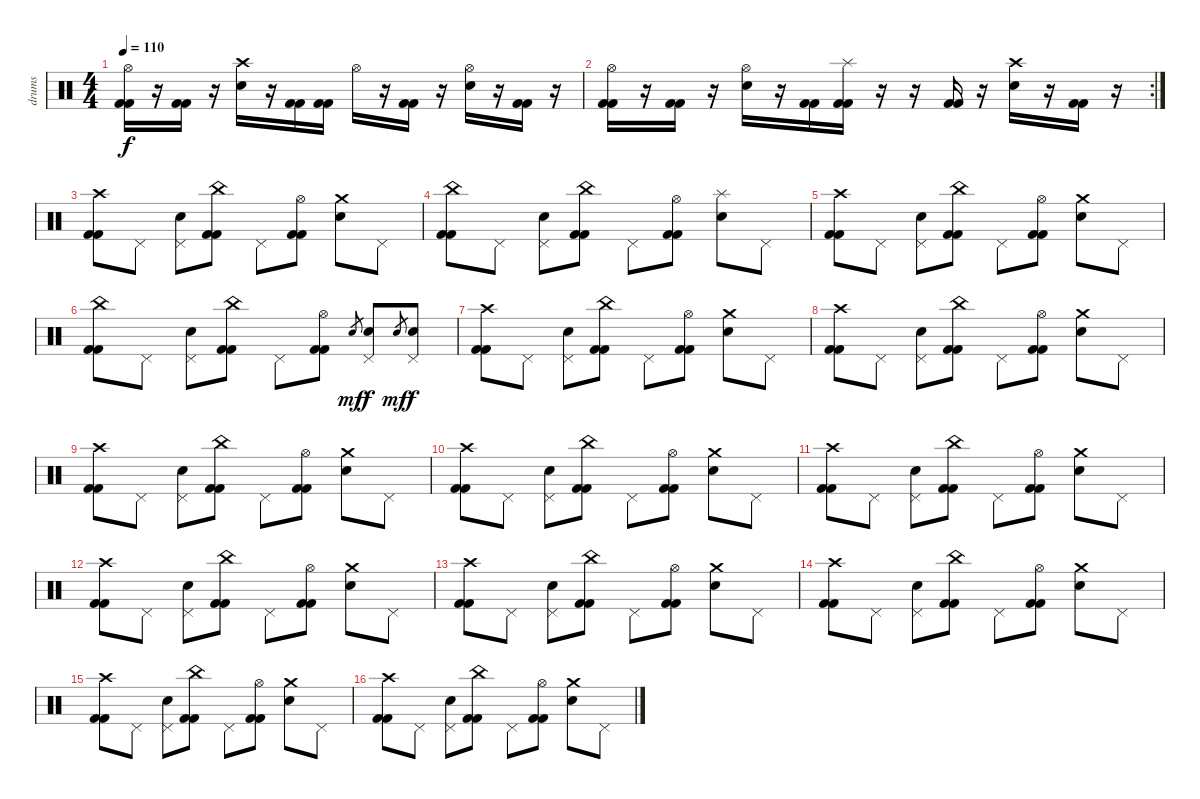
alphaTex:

\track ("drums" "drums") {instrument percussion}
\staff {score}
\articulation defaults
\ts (4 4)
\tempo 110
\clef neutral
\ks c
("Hi-Hat (open)" "Kick (hit) 2" "Kick (hit) 2").16{dy f} r.16 ("Kick (hit) 2" "Kick (hit) 2").16 r.16 ("Crash high (hit)" "Electric Snare (hit)").16 r.16 ("Kick (hit) 2" "Kick (hit) 2").16 ("Kick (hit) 2" "Kick (hit) 2").16 "Hi-Hat (open)".16 r.16 ("Kick (hit) 2" "Kick (hit) 2").16 r.16 ("Hi-Hat (open)" "Electric Snare (hit)").16 r.16 ("Kick (hit) 2" "Kick (hit) 2").16 r.16 |
\rc 2
("Hi-Hat (open)" "Kick (hit) 2" "Kick (hit) 2").16 r.16 ("Kick (hit) 2" "Kick (hit) 2").16 r.16 ("Hi-Hat (open)" "Electric Snare (hit)").16 r.16 ("Kick (hit) 2" "Kick (hit) 2").16 ("Splash (hit)" "Kick (hit) 2" "Kick (hit) 2").16 r.16 r.16 ("Kick (hit) 2" "Kick (hit) 2").16 r.16 ("Crash high (hit)" "Electric Snare (hit)").16 r.16 ("Kick (hit) 2" "Kick (hit) 2").16 r.16 |
("Crash high (hit)" "Kick (hit) 2" "Kick (hit) 2").8 "Pedal Hi-Hat (hit)".8 ("Pedal Hi-Hat (hit)" "Electric Snare (hit)").8 ("China (hit)" "Kick (hit) 2" "Kick (hit) 2").8 "Pedal Hi-Hat (hit)".8 ("Hi-Hat (open)" "Kick (hit) 2" "Kick (hit) 2").8 ("Crash medium (hit)" "Electric Snare (hit)").8 "Pedal Hi-Hat (hit)".8 |
("China (hit)" "Kick (hit) 2" "Kick (hit) 2").8 "Pedal Hi-Hat (hit)".8 ("Pedal Hi-Hat (hit)" "Electric Snare (hit)").8 ("China (hit)" "Kick (hit) 2" "Kick (hit) 2").8 "Pedal Hi-Hat (hit)".8 ("Hi-Hat (open)" "Kick (hit) 2" "Kick (hit) 2").8 ("Splash (hit)" "Electric Snare (hit)").8 "Pedal Hi-Hat (hit)".8 |
("Crash high (hit)" "Kick (hit) 2" "Kick (hit) 2").8 "Pedal Hi-Hat (hit)".8 ("Pedal Hi-Hat (hit)" "Electric Snare (hit)").8 ("China (hit)" "Kick (hit) 2" "Kick (hit) 2").8 "Pedal Hi-Hat (hit)".8 ("Hi-Hat (open)" "Kick (hit) 2" "Kick (hit) 2").8 ("Crash medium (hit)" "Electric Snare (hit)").8 "Pedal Hi-Hat (hit)".8 |
("China (hit)" "Kick (hit) 2" "Kick (hit) 2").8 "Pedal Hi-Hat (hit)".8 ("Pedal Hi-Hat (hit)" "Electric Snare (hit)").8 ("China (hit)" "Kick (hit) 2" "Kick (hit) 2").8 "Pedal Hi-Hat (hit)".8 ("Hi-Hat (open)" "Kick (hit) 2" "Kick (hit) 2").8 "Electric Snare (hit)".8{gr dy mf} ("Pedal Hi-Hat (hit)" "Electric Snare (hit)").8{dy f} "Electric Snare (hit)".8{gr dy mf} ("Pedal Hi-Hat (hit)" "Electric Snare (hit)").8{dy f} |
("Crash high (hit)" "Kick (hit) 2" "Kick (hit) 2").8 "Pedal Hi-Hat (hit)".8 ("Pedal Hi-Hat (hit)" "Electric Snare (hit)").8 ("China (hit)" "Kick (hit) 2" "Kick (hit) 2").8 "Pedal Hi-Hat (hit)".8 ("Hi-Hat (open)" "Kick (hit) 2" "Kick (hit) 2").8 ("Crash medium (hit)" "Electric Snare (hit)").8 "Pedal Hi-Hat (hit)".8 |
("Crash high (hit)" "Kick (hit) 2" "Kick (hit) 2").8 "Pedal Hi-Hat (hit)".8 ("Pedal Hi-Hat (hit)" "Electric Snare (hit)").8 ("China (hit)" "Kick (hit) 2" "Kick (hit) 2").8 "Pedal Hi-Hat (hit)".8 ("Hi-Hat (open)" "Kick (hit) 2" "Kick (hit) 2").8 ("Crash medium (hit)" "Electric Snare (hit)").8 "Pedal Hi-Hat (hit)".8 |
("Crash high (hit)" "Kick (hit) 2" "Kick (hit) 2").8 "Pedal Hi-Hat (hit)".8 ("Pedal Hi-Hat (hit)" "Electric Snare (hit)").8 ("China (hit)" "Kick (hit) 2" "Kick (hit) 2").8 "Pedal Hi-Hat (hit)".8 ("Hi-Hat (open)" "Kick (hit) 2" "Kick (hit) 2").8 ("Crash medium (hit)" "Electric Snare (hit)").8 "Pedal Hi-Hat (hit)".8 |
("Crash high (hit)" "Kick (hit) 2" "Kick (hit) 2").8 "Pedal Hi-Hat (hit)".8 ("Pedal Hi-Hat (hit)" "Electric Snare (hit)").8 ("China (hit)" "Kick (hit) 2" "Kick (hit) 2").8 "Pedal Hi-Hat (hit)".8 ("Hi-Hat (open)" "Kick (hit) 2" "Kick (hit) 2").8 ("Crash medium (hit)" "Electric Snare (hit)").8 "Pedal Hi-Hat (hit)".8 |
("Crash high (hit)" "Kick (hit) 2" "Kick (hit) 2").8 "Pedal Hi-Hat (hit)".8 ("Pedal Hi-Hat (hit)" "Electric Snare (hit)").8 ("China (hit)" "Kick (hit) 2" "Kick (hit) 2").8 "Pedal Hi-Hat (hit)".8 ("Hi-Hat (open)" "Kick (hit) 2" "Kick (hit) 2").8 ("Crash medium (hit)" "Electric Snare (hit)").8 "Pedal Hi-Hat (hit)".8 |
("Crash high (hit)" "Kick (hit) 2" "Kick (hit) 2").8 "Pedal Hi-Hat (hit)".8 ("Pedal Hi-Hat (hit)" "Electric Snare (hit)").8 ("China (hit)" "Kick (hit) 2" "Kick (hit) 2").8 "Pedal Hi-Hat (hit)".8 ("Hi-Hat (open)" "Kick (hit) 2" "Kick (hit) 2").8 ("Crash medium (hit)" "Electric Snare (hit)").8 "Pedal Hi-Hat (hit)".8 |
("Crash high (hit)" "Kick (hit) 2" "Kick (hit) 2").8 "Pedal Hi-Hat (hit)".8 ("Pedal Hi-Hat (hit)" "Electric Snare (hit)").8 ("China (hit)" "Kick (hit) 2" "Kick (hit) 2").8 "Pedal Hi-Hat (hit)".8 ("Hi-Hat (open)" "Kick (hit) 2" "Kick (hit) 2").8 ("Crash medium (hit)" "Electric Snare (hit)").8 "Pedal Hi-Hat (hit)".8 |
("Crash high (hit)" "Kick (hit) 2" "Kick (hit) 2").8 "Pedal Hi-Hat (hit)".8 ("Pedal Hi-Hat (hit)" "Electric Snare (hit)").8 ("China (hit)" "Kick (hit) 2" "Kick (hit) 2").8 "Pedal Hi-Hat (hit)".8 ("Hi-Hat (open)" "Kick (hit) 2" "Kick (hit) 2").8 ("Crash medium (hit)" "Electric Snare (hit)").8 "Pedal Hi-Hat (hit)".8 |
("Crash high (hit)" "Kick (hit) 2" "Kick (hit) 2").8 "Pedal Hi-Hat (hit)".8 ("Pedal Hi-Hat (hit)" "Electric Snare (hit)").8 ("China (hit)" "Kick (hit) 2" "Kick (hit) 2").8 "Pedal Hi-Hat (hit)".8 ("Hi-Hat (open)" "Kick (hit) 2" "Kick (hit) 2").8 ("Crash medium (hit)" "Electric Snare (hit)").8 "Pedal Hi-Hat (hit)".8 |
("Crash high (hit)" "Kick (hit) 2" "Kick (hit) 2").8 "Pedal Hi-Hat (hit)".8 ("Pedal Hi-Hat (hit)" "Electric Snare (hit)").8 ("China (hit)" "Kick (hit) 2" "Kick (hit) 2").8 "Pedal Hi-Hat (hit)".8 ("Hi-Hat (open)" "Kick (hit) 2" "Kick (hit) 2").8 ("Crash medium (hit)" "Electric Snare (hit)").8 "Pedal Hi-Hat (hit)".8
